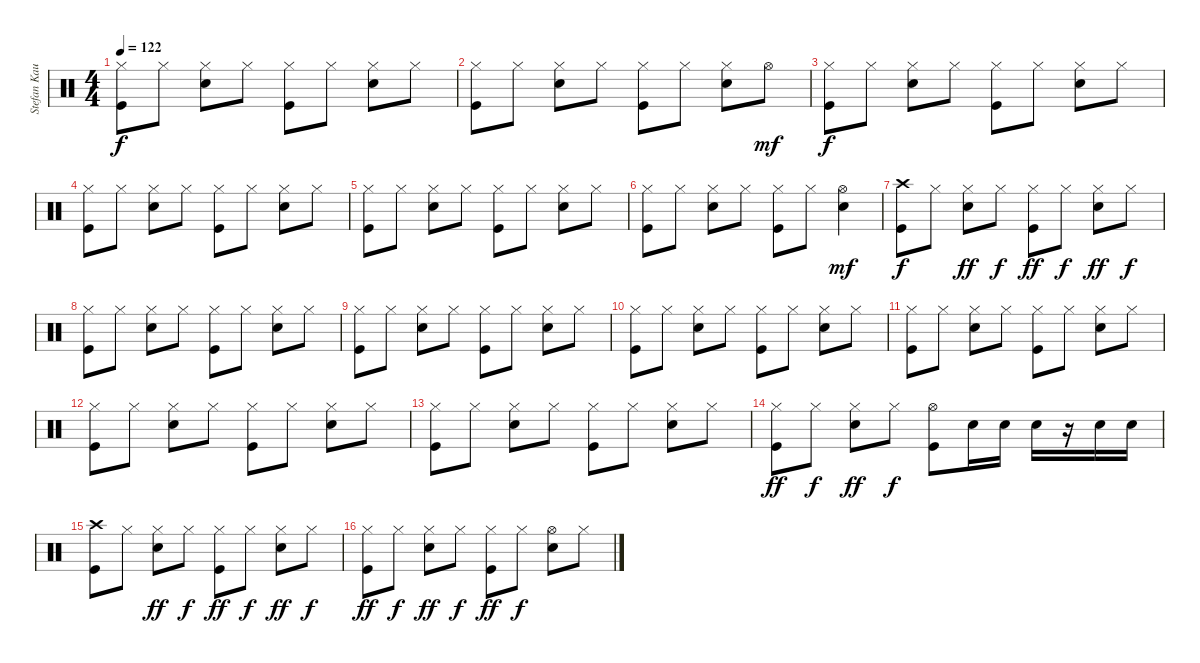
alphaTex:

\track ("Stefan Kaufmann" "Stefan Kau") {instrument percussion}
\staff {score}
\articulation defaults
\ts (4 4)
\tempo 122
\clef neutral
\ks c
("Hi-Hat (closed)" "Kick (hit)").8{dy f} "Hi-Hat (closed)".8 ("Hi-Hat (closed)" "Snare (hit) 2").8 "Hi-Hat (closed)".8 ("Hi-Hat (closed)" "Kick (hit)").8 "Hi-Hat (closed)".8 ("Hi-Hat (closed)" "Snare (hit) 2").8 "Hi-Hat (closed)".8 |
("Hi-Hat (closed)" "Kick (hit)").8 "Hi-Hat (closed)".8 ("Hi-Hat (closed)" "Snare (hit) 2").8 "Hi-Hat (closed)".8 ("Hi-Hat (closed)" "Kick (hit)").8 "Hi-Hat (closed)".8 ("Hi-Hat (closed)" "Snare (hit) 2").8 "Hi-Hat (open)".8{dy mf} |
("Hi-Hat (closed)" "Kick (hit)").8{dy f} "Hi-Hat (closed)".8 ("Hi-Hat (closed)" "Snare (hit) 2").8 "Hi-Hat (closed)".8 ("Hi-Hat (closed)" "Kick (hit)").8 "Hi-Hat (closed)".8 ("Hi-Hat (closed)" "Snare (hit) 2").8 "Hi-Hat (closed)".8 |
("Hi-Hat (closed)" "Kick (hit)").8 "Hi-Hat (closed)".8 ("Hi-Hat (closed)" "Snare (hit) 2").8 "Hi-Hat (closed)".8 ("Hi-Hat (closed)" "Kick (hit)").8 "Hi-Hat (closed)".8 ("Hi-Hat (closed)" "Snare (hit) 2").8 "Hi-Hat (closed)".8 |
("Hi-Hat (closed)" "Kick (hit)").8 "Hi-Hat (closed)".8 ("Hi-Hat (closed)" "Snare (hit) 2").8 "Hi-Hat (closed)".8 ("Hi-Hat (closed)" "Kick (hit)").8 "Hi-Hat (closed)".8 ("Hi-Hat (closed)" "Snare (hit) 2").8 "Hi-Hat (closed)".8 |
("Hi-Hat (closed)" "Kick (hit)").8 "Hi-Hat (closed)".8 ("Hi-Hat (closed)" "Snare (hit) 2").8 "Hi-Hat (closed)".8 ("Hi-Hat (closed)" "Kick (hit)").8 "Hi-Hat (closed)".8 ("Hi-Hat (open)" "Snare (hit) 2").4{dy mf} |
("Crash high (hit)" "Kick (hit)").8{dy f} "Hi-Hat (closed)".8 ("Hi-Hat (closed)" "Snare (hit) 2").8{dy ff} "Hi-Hat (closed)".8{dy f} ("Hi-Hat (closed)" "Kick (hit)").8{dy ff} "Hi-Hat (closed)".8{dy f} ("Hi-Hat (closed)" "Snare (hit) 2").8{dy ff} "Hi-Hat (closed)".8{dy f} |
("Hi-Hat (closed)" "Kick (hit)").8 "Hi-Hat (closed)".8 ("Hi-Hat (closed)" "Snare (hit) 2").8 "Hi-Hat (closed)".8 ("Hi-Hat (closed)" "Kick (hit)").8 "Hi-Hat (closed)".8 ("Hi-Hat (closed)" "Snare (hit) 2").8 "Hi-Hat (closed)".8 |
("Hi-Hat (closed)" "Kick (hit)").8 "Hi-Hat (closed)".8 ("Hi-Hat (closed)" "Snare (hit) 2").8 "Hi-Hat (closed)".8 ("Hi-Hat (closed)" "Kick (hit)").8 "Hi-Hat (closed)".8 ("Hi-Hat (closed)" "Snare (hit) 2").8 "Hi-Hat (closed)".8 |
("Hi-Hat (closed)" "Kick (hit)").8 "Hi-Hat (closed)".8 ("Hi-Hat (closed)" "Snare (hit) 2").8 "Hi-Hat (closed)".8 ("Hi-Hat (closed)" "Kick (hit)").8 "Hi-Hat (closed)".8 ("Hi-Hat (closed)" "Snare (hit) 2").8 "Hi-Hat (closed)".8 |
("Hi-Hat (closed)" "Kick (hit)").8 "Hi-Hat (closed)".8 ("Hi-Hat (closed)" "Snare (hit) 2").8 "Hi-Hat (closed)".8 ("Hi-Hat (closed)" "Kick (hit)").8 "Hi-Hat (closed)".8 ("Hi-Hat (closed)" "Snare (hit) 2").8 "Hi-Hat (closed)".8 |
("Hi-Hat (closed)" "Kick (hit)").8 "Hi-Hat (closed)".8 ("Hi-Hat (closed)" "Snare (hit) 2").8 "Hi-Hat (closed)".8 ("Hi-Hat (closed)" "Kick (hit)").8 "Hi-Hat (closed)".8 ("Hi-Hat (closed)" "Snare (hit) 2").8 "Hi-Hat (closed)".8 |
("Hi-Hat (closed)" "Kick (hit)").8 "Hi-Hat (closed)".8 ("Hi-Hat (closed)" "Snare (hit) 2").8 "Hi-Hat (closed)".8 ("Hi-Hat (closed)" "Kick (hit)").8 "Hi-Hat (closed)".8 ("Hi-Hat (closed)" "Snare (hit) 2").8 "Hi-Hat (closed)".8 |
("Hi-Hat (closed)" "Kick (hit)").8{dy ff} "Hi-Hat (closed)".8{dy f} ("Hi-Hat (closed)" "Snare (hit) 2").8{dy ff} "Hi-Hat (closed)".8{dy f} ("Hi-Hat (open)" "Kick (hit)").8 "Snare (hit) 2".16 "Snare (hit) 2".16 "Snare (hit) 2".16 r.16 "Snare (hit) 2".16 "Snare (hit) 2".16 |
("Crash high (hit)" "Kick (hit)").8 "Hi-Hat (closed)".8 ("Hi-Hat (closed)" "Snare (hit) 2").8{dy ff} "Hi-Hat (closed)".8{dy f} ("Hi-Hat (closed)" "Kick (hit)").8{dy ff} "Hi-Hat (closed)".8{dy f} ("Hi-Hat (closed)" "Snare (hit) 2").8{dy ff} "Hi-Hat (closed)".8{dy f} |
("Hi-Hat (closed)" "Kick (hit)").8{dy ff} "Hi-Hat (closed)".8{dy f} ("Hi-Hat (closed)" "Snare (hit) 2").8{dy ff} "Hi-Hat (closed)".8{dy f} ("Hi-Hat (closed)" "Kick (hit)").8{dy ff} "Hi-Hat (closed)".8{dy f} ("Hi-Hat (open)" "Snare (hit) 2").8 "Hi-Hat (closed)".8
